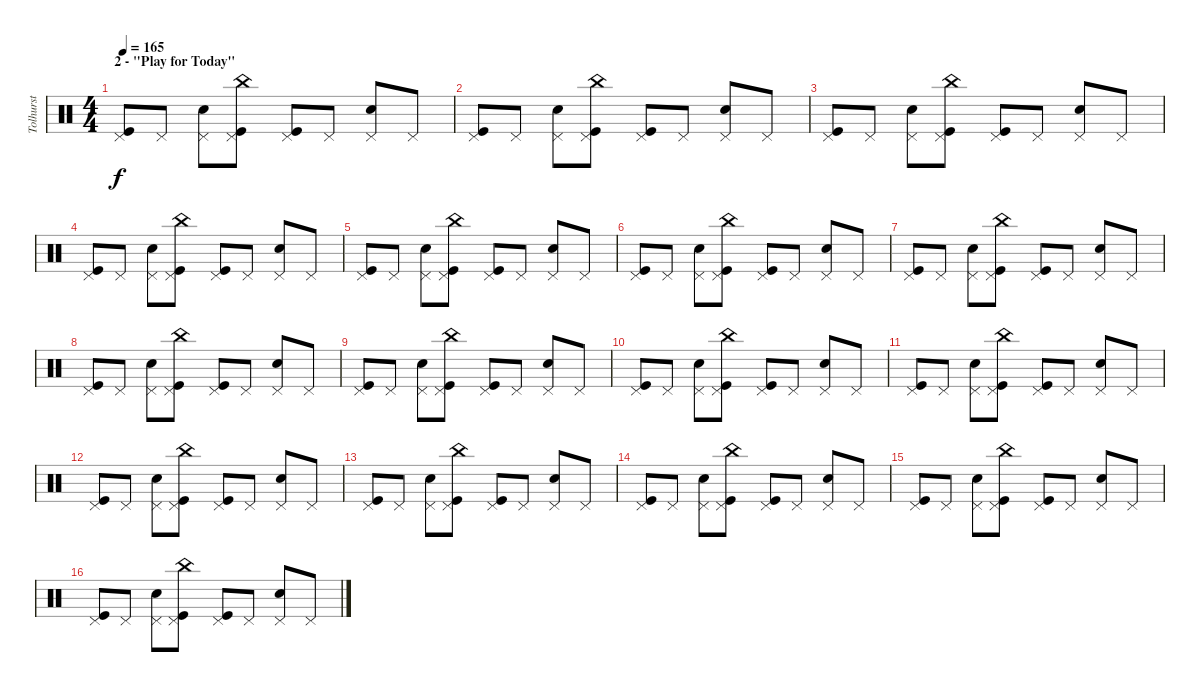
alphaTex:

\track ("Tolhurst" "Tolhurst") {instrument percussion}
\staff {score}
\articulation defaults
\ts (4 4)
\section ("" "2 - \"Play for Today\"")
\tempo 165
\clef neutral
\ks c
("Pedal Hi-Hat (hit)" "Kick (hit)").8{dy f} "Pedal Hi-Hat (hit)".8 ("Pedal Hi-Hat (hit)" "Snare (hit) 2").8 ("China (hit)" "Pedal Hi-Hat (hit)" "Kick (hit)").8 ("Pedal Hi-Hat (hit)" "Kick (hit)").8 "Pedal Hi-Hat (hit)".8 ("Pedal Hi-Hat (hit)" "Snare (hit) 2").8 "Pedal Hi-Hat (hit)".8 |
("Pedal Hi-Hat (hit)" "Kick (hit)").8 "Pedal Hi-Hat (hit)".8 ("Pedal Hi-Hat (hit)" "Snare (hit) 2").8 ("China (hit)" "Pedal Hi-Hat (hit)" "Kick (hit)").8 ("Pedal Hi-Hat (hit)" "Kick (hit)").8 "Pedal Hi-Hat (hit)".8 ("Pedal Hi-Hat (hit)" "Snare (hit) 2").8 "Pedal Hi-Hat (hit)".8 |
("Pedal Hi-Hat (hit)" "Kick (hit)").8 "Pedal Hi-Hat (hit)".8 ("Pedal Hi-Hat (hit)" "Snare (hit) 2").8 ("China (hit)" "Pedal Hi-Hat (hit)" "Kick (hit)").8 ("Pedal Hi-Hat (hit)" "Kick (hit)").8 "Pedal Hi-Hat (hit)".8 ("Pedal Hi-Hat (hit)" "Snare (hit) 2").8 "Pedal Hi-Hat (hit)".8 |
("Pedal Hi-Hat (hit)" "Kick (hit)").8 "Pedal Hi-Hat (hit)".8 ("Pedal Hi-Hat (hit)" "Snare (hit) 2").8 ("China (hit)" "Pedal Hi-Hat (hit)" "Kick (hit)").8 ("Pedal Hi-Hat (hit)" "Kick (hit)").8 "Pedal Hi-Hat (hit)".8 ("Pedal Hi-Hat (hit)" "Snare (hit) 2").8 "Pedal Hi-Hat (hit)".8 |
("Pedal Hi-Hat (hit)" "Kick (hit)").8 "Pedal Hi-Hat (hit)".8 ("Pedal Hi-Hat (hit)" "Snare (hit) 2").8 ("China (hit)" "Pedal Hi-Hat (hit)" "Kick (hit)").8 ("Pedal Hi-Hat (hit)" "Kick (hit)").8 "Pedal Hi-Hat (hit)".8 ("Pedal Hi-Hat (hit)" "Snare (hit) 2").8 "Pedal Hi-Hat (hit)".8 |
("Pedal Hi-Hat (hit)" "Kick (hit)").8 "Pedal Hi-Hat (hit)".8 ("Pedal Hi-Hat (hit)" "Snare (hit) 2").8 ("China (hit)" "Pedal Hi-Hat (hit)" "Kick (hit)").8 ("Pedal Hi-Hat (hit)" "Kick (hit)").8 "Pedal Hi-Hat (hit)".8 ("Pedal Hi-Hat (hit)" "Snare (hit) 2").8 "Pedal Hi-Hat (hit)".8 |
("Pedal Hi-Hat (hit)" "Kick (hit)").8 "Pedal Hi-Hat (hit)".8 ("Pedal Hi-Hat (hit)" "Snare (hit) 2").8 ("China (hit)" "Pedal Hi-Hat (hit)" "Kick (hit)").8 ("Pedal Hi-Hat (hit)" "Kick (hit)").8 "Pedal Hi-Hat (hit)".8 ("Pedal Hi-Hat (hit)" "Snare (hit) 2").8 "Pedal Hi-Hat (hit)".8 |
("Pedal Hi-Hat (hit)" "Kick (hit)").8 "Pedal Hi-Hat (hit)".8 ("Pedal Hi-Hat (hit)" "Snare (hit) 2").8 ("China (hit)" "Pedal Hi-Hat (hit)" "Kick (hit)").8 ("Pedal Hi-Hat (hit)" "Kick (hit)").8 "Pedal Hi-Hat (hit)".8 ("Pedal Hi-Hat (hit)" "Snare (hit) 2").8 "Pedal Hi-Hat (hit)".8 |
("Pedal Hi-Hat (hit)" "Kick (hit)").8 "Pedal Hi-Hat (hit)".8 ("Pedal Hi-Hat (hit)" "Snare (hit) 2").8 ("China (hit)" "Pedal Hi-Hat (hit)" "Kick (hit)").8 ("Pedal Hi-Hat (hit)" "Kick (hit)").8 "Pedal Hi-Hat (hit)".8 ("Pedal Hi-Hat (hit)" "Snare (hit) 2").8 "Pedal Hi-Hat (hit)".8 |
("Pedal Hi-Hat (hit)" "Kick (hit)").8 "Pedal Hi-Hat (hit)".8 ("Pedal Hi-Hat (hit)" "Snare (hit) 2").8 ("China (hit)" "Pedal Hi-Hat (hit)" "Kick (hit)").8 ("Pedal Hi-Hat (hit)" "Kick (hit)").8 "Pedal Hi-Hat (hit)".8 ("Pedal Hi-Hat (hit)" "Snare (hit) 2").8 "Pedal Hi-Hat (hit)".8 |
("Pedal Hi-Hat (hit)" "Kick (hit)").8 "Pedal Hi-Hat (hit)".8 ("Pedal Hi-Hat (hit)" "Snare (hit) 2").8 ("China (hit)" "Pedal Hi-Hat (hit)" "Kick (hit)").8 ("Pedal Hi-Hat (hit)" "Kick (hit)").8 "Pedal Hi-Hat (hit)".8 ("Pedal Hi-Hat (hit)" "Snare (hit) 2").8 "Pedal Hi-Hat (hit)".8 |
("Pedal Hi-Hat (hit)" "Kick (hit)").8 "Pedal Hi-Hat (hit)".8 ("Pedal Hi-Hat (hit)" "Snare (hit) 2").8 ("China (hit)" "Pedal Hi-Hat (hit)" "Kick (hit)").8 ("Pedal Hi-Hat (hit)" "Kick (hit)").8 "Pedal Hi-Hat (hit)".8 ("Pedal Hi-Hat (hit)" "Snare (hit) 2").8 "Pedal Hi-Hat (hit)".8 |
("Pedal Hi-Hat (hit)" "Kick (hit)").8 "Pedal Hi-Hat (hit)".8 ("Pedal Hi-Hat (hit)" "Snare (hit) 2").8 ("China (hit)" "Pedal Hi-Hat (hit)" "Kick (hit)").8 ("Pedal Hi-Hat (hit)" "Kick (hit)").8 "Pedal Hi-Hat (hit)".8 ("Pedal Hi-Hat (hit)" "Snare (hit) 2").8 "Pedal Hi-Hat (hit)".8 |
("Pedal Hi-Hat (hit)" "Kick (hit)").8 "Pedal Hi-Hat (hit)".8 ("Pedal Hi-Hat (hit)" "Snare (hit) 2").8 ("China (hit)" "Pedal Hi-Hat (hit)" "Kick (hit)").8 ("Pedal Hi-Hat (hit)" "Kick (hit)").8 "Pedal Hi-Hat (hit)".8 ("Pedal Hi-Hat (hit)" "Snare (hit) 2").8 "Pedal Hi-Hat (hit)".8 |
("Pedal Hi-Hat (hit)" "Kick (hit)").8 "Pedal Hi-Hat (hit)".8 ("Pedal Hi-Hat (hit)" "Snare (hit) 2").8 ("China (hit)" "Pedal Hi-Hat (hit)" "Kick (hit)").8 ("Pedal Hi-Hat (hit)" "Kick (hit)").8 "Pedal Hi-Hat (hit)".8 ("Pedal Hi-Hat (hit)" "Snare (hit) 2").8 "Pedal Hi-Hat (hit)".8 |
("Pedal Hi-Hat (hit)" "Kick (hit)").8 "Pedal Hi-Hat (hit)".8 ("Pedal Hi-Hat (hit)" "Snare (hit) 2").8 ("China (hit)" "Pedal Hi-Hat (hit)" "Kick (hit)").8 ("Pedal Hi-Hat (hit)" "Kick (hit)").8 "Pedal Hi-Hat (hit)".8 ("Pedal Hi-Hat (hit)" "Snare (hit) 2").8 "Pedal Hi-Hat (hit)".8
